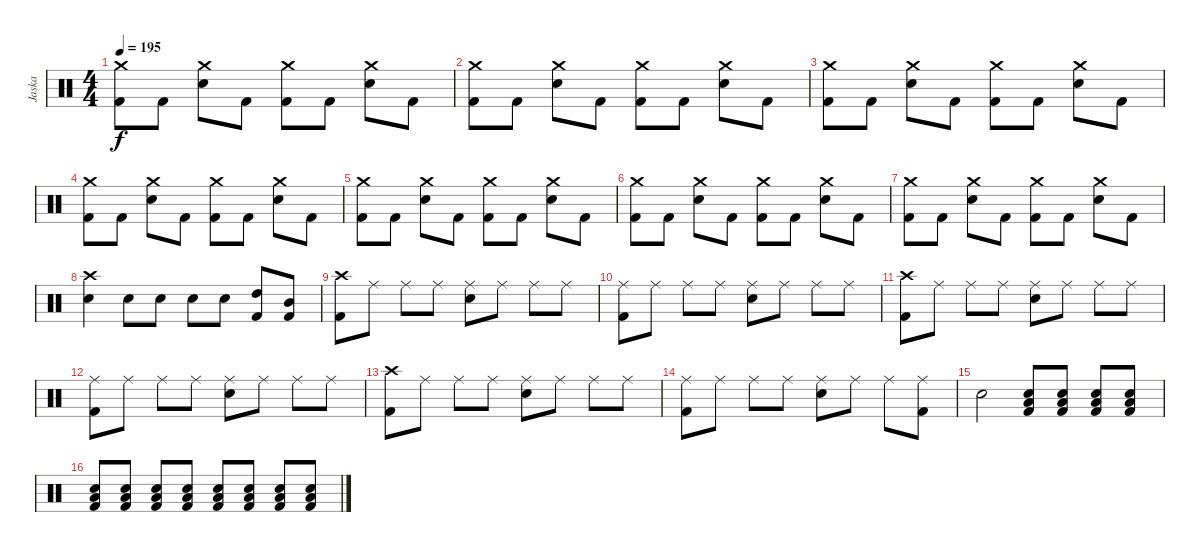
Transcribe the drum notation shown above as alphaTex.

\track ("Jaska" "Jaska") {instrument percussion}
\staff {score}
\articulation defaults
\ts (4 4)
\tempo 195
\clef neutral
\ks c
("Crash medium (hit)" "Kick (hit) 2").8{dy f} "Kick (hit) 2".8 ("Crash medium (hit)" "Electric Snare (hit)").8 "Kick (hit) 2".8 ("Crash medium (hit)" "Kick (hit) 2").8 "Kick (hit) 2".8 ("Crash medium (hit)" "Electric Snare (hit)").8 "Kick (hit) 2".8 |
("Crash medium (hit)" "Kick (hit) 2").8 "Kick (hit) 2".8 ("Crash medium (hit)" "Electric Snare (hit)").8 "Kick (hit) 2".8 ("Crash medium (hit)" "Kick (hit) 2").8 "Kick (hit) 2".8 ("Crash medium (hit)" "Electric Snare (hit)").8 "Kick (hit) 2".8 |
("Crash medium (hit)" "Kick (hit) 2").8 "Kick (hit) 2".8 ("Crash medium (hit)" "Electric Snare (hit)").8 "Kick (hit) 2".8 ("Crash medium (hit)" "Kick (hit) 2").8 "Kick (hit) 2".8 ("Crash medium (hit)" "Electric Snare (hit)").8 "Kick (hit) 2".8 |
("Crash medium (hit)" "Kick (hit) 2").8 "Kick (hit) 2".8 ("Crash medium (hit)" "Electric Snare (hit)").8 "Kick (hit) 2".8 ("Crash medium (hit)" "Kick (hit) 2").8 "Kick (hit) 2".8 ("Crash medium (hit)" "Electric Snare (hit)").8 "Kick (hit) 2".8 |
("Crash medium (hit)" "Kick (hit) 2").8 "Kick (hit) 2".8 ("Crash medium (hit)" "Electric Snare (hit)").8 "Kick (hit) 2".8 ("Crash medium (hit)" "Kick (hit) 2").8 "Kick (hit) 2".8 ("Crash medium (hit)" "Electric Snare (hit)").8 "Kick (hit) 2".8 |
("Crash medium (hit)" "Kick (hit) 2").8 "Kick (hit) 2".8 ("Crash medium (hit)" "Electric Snare (hit)").8 "Kick (hit) 2".8 ("Crash medium (hit)" "Kick (hit) 2").8 "Kick (hit) 2".8 ("Crash medium (hit)" "Electric Snare (hit)").8 "Kick (hit) 2".8 |
("Crash medium (hit)" "Kick (hit) 2").8 "Kick (hit) 2".8 ("Crash medium (hit)" "Electric Snare (hit)").8 "Kick (hit) 2".8 ("Crash medium (hit)" "Kick (hit) 2").8 "Kick (hit) 2".8 ("Crash medium (hit)" "Electric Snare (hit)").8 "Kick (hit) 2".8 |
("Crash high (hit)" "Electric Snare (hit)").4 "Electric Snare (hit)".8 "Electric Snare (hit)".8 "Electric Snare (hit)".8 "Electric Snare (hit)".8 ("High Tom (hit)" "Kick (hit) 2").8 ("Mid Tom (hit)" "Kick (hit) 2").8 |
("Crash high (hit)" "Kick (hit) 2").8 "Ride (middle)".8 "Ride (middle)".8 "Ride (middle)".8 ("Ride (middle)" "Electric Snare (hit)").8 "Ride (middle)".8 "Ride (middle)".8 "Ride (middle)".8 |
("Ride (middle)" "Kick (hit) 2").8 "Ride (middle)".8 "Ride (middle)".8 "Ride (middle)".8 ("Ride (middle)" "Electric Snare (hit)").8 "Ride (middle)".8 "Ride (middle)".8 "Ride (middle)".8 |
("Crash high (hit)" "Kick (hit) 2").8 "Ride (middle)".8 "Ride (middle)".8 "Ride (middle)".8 ("Ride (middle)" "Electric Snare (hit)").8 "Ride (middle)".8 "Ride (middle)".8 "Ride (middle)".8 |
("Ride (middle)" "Kick (hit) 2").8 "Ride (middle)".8 "Ride (middle)".8 "Ride (middle)".8 ("Ride (middle)" "Electric Snare (hit)").8 "Ride (middle)".8 "Ride (middle)".8 "Ride (middle)".8 |
("Crash high (hit)" "Kick (hit) 2").8 "Ride (middle)".8 "Ride (middle)".8 "Ride (middle)".8 ("Ride (middle)" "Electric Snare (hit)").8 "Ride (middle)".8 "Ride (middle)".8 "Ride (middle)".8 |
("Ride (middle)" "Kick (hit) 2").8 "Ride (middle)".8 "Ride (middle)".8 "Ride (middle)".8 ("Ride (middle)" "Electric Snare (hit)").8 "Ride (middle)".8 "Ride (middle)".8 ("Ride (middle)" "Kick (hit) 2").8 |
"Electric Snare (hit)".2 ("Electric Snare (hit)" "Kick (hit) 2" "Low Floor Tom (hit)").8{volume 8} ("Electric Snare (hit)" "Kick (hit) 2" "Low Floor Tom (hit)").8{volume 9} ("Electric Snare (hit)" "Kick (hit) 2" "Low Floor Tom (hit)").8{volume 10} ("Electric Snare (hit)" "Kick (hit) 2" "Low Floor Tom (hit)").8{volume 11} |
("Electric Snare (hit)" "Kick (hit) 2" "Low Floor Tom (hit)").8{volume 12} ("Electric Snare (hit)" "Kick (hit) 2" "Low Floor Tom (hit)").8{volume 13} ("Electric Snare (hit)" "Kick (hit) 2" "Low Floor Tom (hit)").8 ("Electric Snare (hit)" "Kick (hit) 2" "Low Floor Tom (hit)").8 ("Electric Snare (hit)" "Kick (hit) 2" "Low Floor Tom (hit)").8 ("Electric Snare (hit)" "Kick (hit) 2" "Low Floor Tom (hit)").8 ("Electric Snare (hit)" "Kick (hit) 2" "Low Floor Tom (hit)").8 ("Electric Snare (hit)" "Kick (hit) 2" "Low Floor Tom (hit)").8
